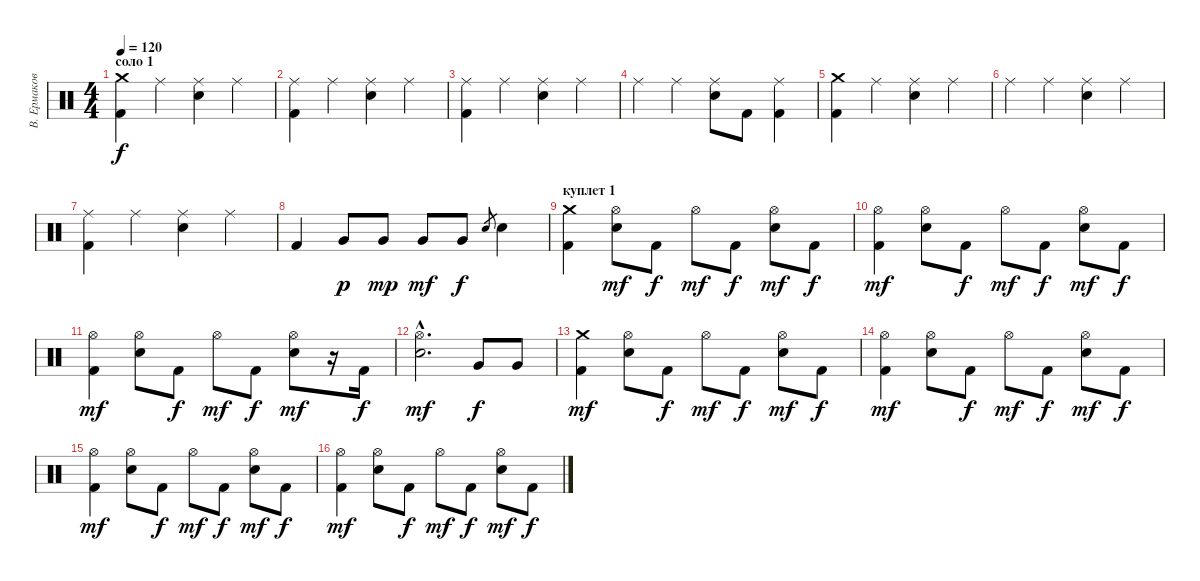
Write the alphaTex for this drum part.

\track ("В. Ермаков" "В. Ермаков") {instrument percussion}
\staff {score}
\articulation defaults
\ts (4 4)
\section ("" "соло 1")
\tempo 120
\clef neutral
\ks c
("Kick (hit) 2" "Crash medium (hit)").4{dy f} "Ride (middle)".4 ("Ride (middle)" "Electric Snare (hit)").4 "Ride (middle)".4 |
("Ride (middle)" "Kick (hit) 2").4 "Ride (middle)".4 ("Ride (middle)" "Electric Snare (hit)").4 "Ride (middle)".4 |
("Ride (middle)" "Kick (hit) 2").4 "Ride (middle)".4 ("Ride (middle)" "Electric Snare (hit)").4 "Ride (middle)".4 |
"Ride (middle)".4 "Ride (middle)".4 ("Ride (middle)" "Electric Snare (hit)").8 "Kick (hit) 2".8 ("Ride (middle)" "Kick (hit) 2").4 |
("Crash medium (hit)" "Kick (hit) 2").4 "Ride (middle)".4 ("Ride (middle)" "Electric Snare (hit)").4 "Ride (middle)".4 |
"Ride (middle)".4 "Ride (middle)".4 ("Ride (middle)" "Electric Snare (hit)").4 "Ride (middle)".4 |
("Ride (middle)" "Kick (hit) 2").4 "Ride (middle)".4 ("Ride (middle)" "Electric Snare (hit)").4 "Ride (middle)".4 |
"Kick (hit) 2".4 "Very Low Tom (hit)".8{dy p} "Very Low Tom (hit)".8{dy mp} "Very Low Tom (hit)".8{dy mf} "Very Low Tom (hit)".8{dy f} "Electric Snare (hit)".8{gr} "Electric Snare (hit)".4 |
\section ("" "куплет 1")
("Crash medium (hit)" "Kick (hit) 2").4 ("Hi-Hat (open)" "Electric Snare (hit)").8{dy mf} "Kick (hit) 2".8{dy f} "Hi-Hat (open)".8{dy mf} "Kick (hit) 2".8{dy f} ("Hi-Hat (open)" "Electric Snare (hit)").8{dy mf} "Kick (hit) 2".8{dy f} |
("Hi-Hat (open)" "Kick (hit) 2").4{dy mf} ("Hi-Hat (open)" "Electric Snare (hit)").8 "Kick (hit) 2".8{dy f} "Hi-Hat (open)".8{dy mf} "Kick (hit) 2".8{dy f} ("Hi-Hat (open)" "Electric Snare (hit)").8{dy mf} "Kick (hit) 2".8{dy f} |
("Hi-Hat (open)" "Kick (hit) 2").4{dy mf} ("Hi-Hat (open)" "Electric Snare (hit)").8 "Kick (hit) 2".8{dy f} "Hi-Hat (open)".8{dy mf} "Kick (hit) 2".8{dy f} ("Hi-Hat (open)" "Electric Snare (hit)").8{dy mf} r.16 "Kick (hit) 2".16{dy f} |
("Hi-Hat (open)"{hac} "Electric Snare (hit)"{hac}).2{d dy mf} "Very Low Tom (hit)".8{dy f} "Very Low Tom (hit)".8 |
("Crash medium (hit)" "Kick (hit) 2").4{dy mf} ("Hi-Hat (open)" "Electric Snare (hit)").8 "Kick (hit) 2".8{dy f} "Hi-Hat (open)".8{dy mf} "Kick (hit) 2".8{dy f} ("Hi-Hat (open)" "Electric Snare (hit)").8{dy mf} "Kick (hit) 2".8{dy f} |
("Hi-Hat (open)" "Kick (hit) 2").4{dy mf} ("Hi-Hat (open)" "Electric Snare (hit)").8 "Kick (hit) 2".8{dy f} "Hi-Hat (open)".8{dy mf} "Kick (hit) 2".8{dy f} ("Hi-Hat (open)" "Electric Snare (hit)").8{dy mf} "Kick (hit) 2".8{dy f} |
("Hi-Hat (open)" "Kick (hit) 2").4{dy mf} ("Hi-Hat (open)" "Electric Snare (hit)").8 "Kick (hit) 2".8{dy f} "Hi-Hat (open)".8{dy mf} "Kick (hit) 2".8{dy f} ("Hi-Hat (open)" "Electric Snare (hit)").8{dy mf} "Kick (hit) 2".8{dy f} |
("Hi-Hat (open)" "Kick (hit) 2").4{dy mf} ("Hi-Hat (open)" "Electric Snare (hit)").8 "Kick (hit) 2".8{dy f} "Hi-Hat (open)".8{dy mf} "Kick (hit) 2".8{dy f} ("Hi-Hat (open)" "Electric Snare (hit)").8{dy mf} "Kick (hit) 2".8{dy f}
